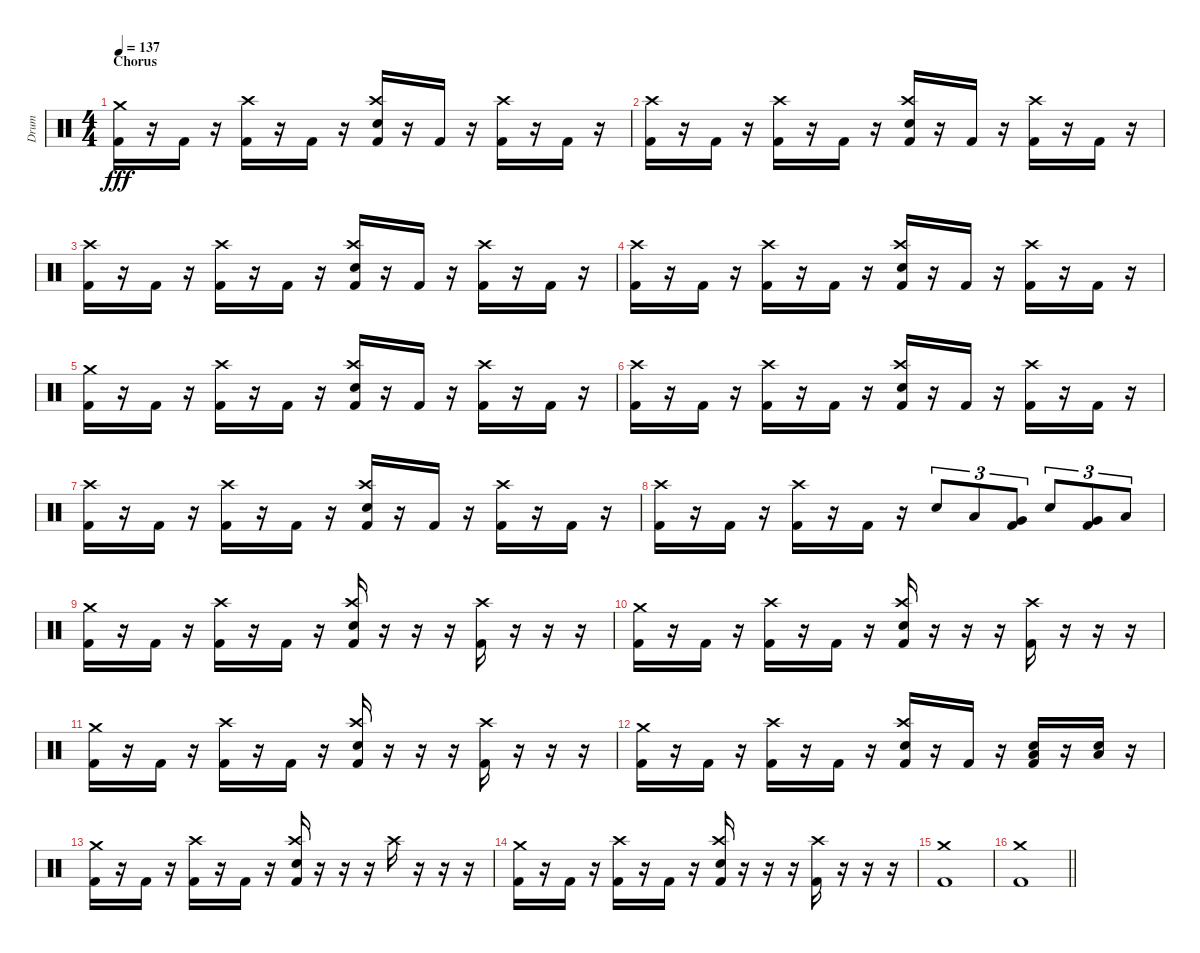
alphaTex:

\track ("Drum" "Drum") {instrument percussion}
\staff {score}
\articulation defaults
\ts (4 4)
\section ("" "Chorus")
\tempo 137
\clef neutral
\ks c
("Crash medium (hit)" "Kick (hit) 2").16{dy fff} r.16 "Kick (hit) 2".16 r.16 ("Crash high (hit)" "Kick (hit) 2").16 r.16 "Kick (hit) 2".16 r.16 ("Crash high (hit)" "Electric Snare (hit)" "Kick (hit) 2").16 r.16 "Kick (hit) 2".16 r.16 ("Crash high (hit)" "Kick (hit) 2").16 r.16 "Kick (hit) 2".16 r.16 |
("Crash high (hit)" "Kick (hit) 2").16 r.16 "Kick (hit) 2".16 r.16 ("Crash high (hit)" "Kick (hit) 2").16 r.16 "Kick (hit) 2".16 r.16 ("Crash high (hit)" "Electric Snare (hit)" "Kick (hit) 2").16 r.16 "Kick (hit) 2".16 r.16 ("Crash high (hit)" "Kick (hit) 2").16 r.16 "Kick (hit) 2".16 r.16 |
("Crash high (hit)" "Kick (hit) 2").16 r.16 "Kick (hit) 2".16 r.16 ("Crash high (hit)" "Kick (hit) 2").16 r.16 "Kick (hit) 2".16 r.16 ("Crash high (hit)" "Electric Snare (hit)" "Kick (hit) 2").16 r.16 "Kick (hit) 2".16 r.16 ("Crash high (hit)" "Kick (hit) 2").16 r.16 "Kick (hit) 2".16 r.16 |
("Crash high (hit)" "Kick (hit) 2").16 r.16 "Kick (hit) 2".16 r.16 ("Crash high (hit)" "Kick (hit) 2").16 r.16 "Kick (hit) 2".16 r.16 ("Crash high (hit)" "Electric Snare (hit)" "Kick (hit) 2").16 r.16 "Kick (hit) 2".16 r.16 ("Crash high (hit)" "Kick (hit) 2").16 r.16 "Kick (hit) 2".16 r.16 |
("Crash medium (hit)" "Kick (hit) 2").16 r.16 "Kick (hit) 2".16 r.16 ("Crash high (hit)" "Kick (hit) 2").16 r.16 "Kick (hit) 2".16 r.16 ("Crash high (hit)" "Electric Snare (hit)" "Kick (hit) 2").16 r.16 "Kick (hit) 2".16 r.16 ("Crash high (hit)" "Kick (hit) 2").16 r.16 "Kick (hit) 2".16 r.16 |
("Crash high (hit)" "Kick (hit) 2").16 r.16 "Kick (hit) 2".16 r.16 ("Crash high (hit)" "Kick (hit) 2").16 r.16 "Kick (hit) 2".16 r.16 ("Crash high (hit)" "Electric Snare (hit)" "Kick (hit) 2").16 r.16 "Kick (hit) 2".16 r.16 ("Crash high (hit)" "Kick (hit) 2").16 r.16 "Kick (hit) 2".16 r.16 |
("Crash high (hit)" "Kick (hit) 2").16 r.16 "Kick (hit) 2".16 r.16 ("Crash high (hit)" "Kick (hit) 2").16 r.16 "Kick (hit) 2".16 r.16 ("Crash high (hit)" "Electric Snare (hit)" "Kick (hit) 2").16 r.16 "Kick (hit) 2".16 r.16 ("Crash high (hit)" "Kick (hit) 2").16 r.16 "Kick (hit) 2".16 r.16 |
("Crash high (hit)" "Kick (hit) 2").16 r.16 "Kick (hit) 2".16 r.16 ("Crash high (hit)" "Kick (hit) 2").16 r.16 "Kick (hit) 2".16 r.16 "Electric Snare (hit)".8{tu (3 2)} "Low Tom (hit)".8{tu (3 2)} ("Very Low Tom (hit)" "Kick (hit) 2").8{tu (3 2)} "Electric Snare (hit)".8{tu (3 2)} ("Very Low Tom (hit)" "Kick (hit) 2").8{tu (3 2)} "Low Floor Tom (hit)".8{tu (3 2)} |
("Crash medium (hit)" "Kick (hit) 2").16 r.16 "Kick (hit) 2".16 r.16 ("Crash high (hit)" "Kick (hit) 2").16 r.16 "Kick (hit) 2".16 r.16 ("Crash high (hit)" "Electric Snare (hit)" "Kick (hit) 2").16 r.16 r.16 r.16 ("Crash high (hit)" "Kick (hit) 2").16 r.16 r.16 r.16 |
("Crash medium (hit)" "Kick (hit) 2").16 r.16 "Kick (hit) 2".16 r.16 ("Crash high (hit)" "Kick (hit) 2").16 r.16 "Kick (hit) 2".16 r.16 ("Crash high (hit)" "Electric Snare (hit)" "Kick (hit) 2").16 r.16 r.16 r.16 ("Crash high (hit)" "Kick (hit) 2").16 r.16 r.16 r.16 |
("Crash medium (hit)" "Kick (hit) 2").16 r.16 "Kick (hit) 2".16 r.16 ("Crash high (hit)" "Kick (hit) 2").16 r.16 "Kick (hit) 2".16 r.16 ("Crash high (hit)" "Electric Snare (hit)" "Kick (hit) 2").16 r.16 r.16 r.16 ("Crash high (hit)" "Kick (hit) 2").16 r.16 r.16 r.16 |
("Crash medium (hit)" "Kick (hit) 2").16 r.16 "Kick (hit) 2".16 r.16 ("Crash high (hit)" "Kick (hit) 2").16 r.16 "Kick (hit) 2".16 r.16 ("Crash high (hit)" "Electric Snare (hit)" "Kick (hit) 2").16 r.16 "Kick (hit) 2".16 r.16 ("Low Floor Tom (hit)" "Electric Snare (hit)" "Kick (hit) 2").16 r.16 ("Low Floor Tom (hit)" "Electric Snare (hit)").16 r.16 |
("Crash medium (hit)" "Kick (hit) 2").16 r.16 "Kick (hit) 2".16 r.16 ("Crash high (hit)" "Kick (hit) 2").16 r.16 "Kick (hit) 2".16 r.16 ("Crash high (hit)" "Electric Snare (hit)" "Kick (hit) 2").16 r.16 r.16 r.16 "Crash high (hit)".16 r.16 r.16 r.16 |
("Crash medium (hit)" "Kick (hit) 2").16 r.16 "Kick (hit) 2".16 r.16 ("Crash high (hit)" "Kick (hit) 2").16 r.16 "Kick (hit) 2".16 r.16 ("Crash high (hit)" "Electric Snare (hit)" "Kick (hit) 2").16 r.16 r.16 r.16 ("Crash high (hit)" "Kick (hit) 2").16 r.16 r.16 r.16 |
("Crash medium (hit)" "Kick (hit) 2").1 |
\barLineRight lightlight
("Crash medium (hit)" "Kick (hit) 2").1
